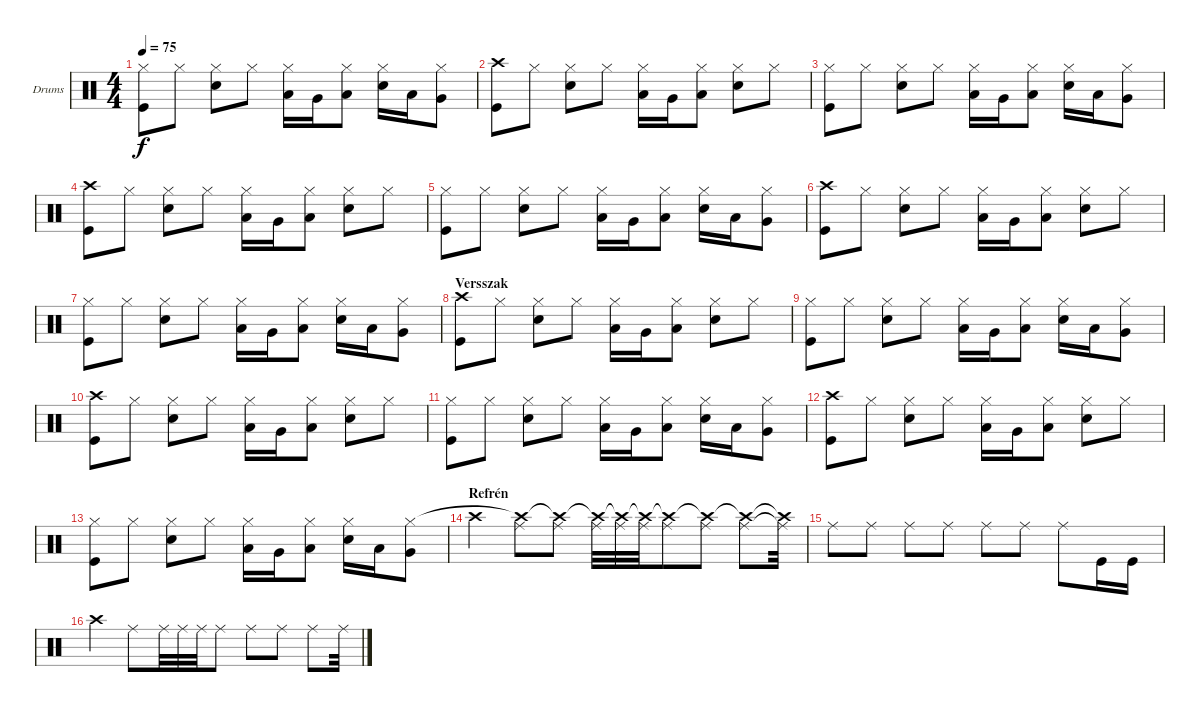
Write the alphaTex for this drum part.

\defaultSystemsLayout 4
\bracketExtendMode groupsimilarinstruments
\firstSystemTrackNameOrientation horizontal
\otherSystemsTrackNameOrientation horizontal
\track ("Craig Nunenmacher" "Drums") {instrument percussion}
\staff {score}
\articulation defaults
\ts (4 4)
\tempo 75
\clef neutral
\ks c
("Kick (hit)" "Hi-Hat (closed)").8{dy f} "Hi-Hat (closed)".8 ("Snare (hit) 2" "Hi-Hat (closed)").8 "Hi-Hat (closed)".8 ("Low Tom (hit)" "Hi-Hat (closed)").16 "Very Low Tom (hit)".16 ("Low Tom (hit)" "Hi-Hat (closed)").8 ("Snare (hit) 2" "Hi-Hat (closed)").16 "Low Tom (hit)".16 ("Very Low Tom (hit)" "Hi-Hat (closed)").8 |
("Kick (hit)" "Crash high (hit)").8 "Hi-Hat (closed)".8 ("Snare (hit) 2" "Hi-Hat (closed)").8 "Hi-Hat (closed)".8 ("Low Tom (hit)" "Hi-Hat (closed)").16 "Very Low Tom (hit)".16 ("Low Tom (hit)" "Hi-Hat (closed)").8 ("Snare (hit) 2" "Hi-Hat (closed)").8 "Hi-Hat (closed)".8 |
("Kick (hit)" "Hi-Hat (closed)").8 "Hi-Hat (closed)".8 ("Snare (hit) 2" "Hi-Hat (closed)").8 "Hi-Hat (closed)".8 ("Low Tom (hit)" "Hi-Hat (closed)").16 "Very Low Tom (hit)".16 ("Low Tom (hit)" "Hi-Hat (closed)").8 ("Snare (hit) 2" "Hi-Hat (closed)").16 "Low Tom (hit)".16 ("Very Low Tom (hit)" "Hi-Hat (closed)").8 |
("Kick (hit)" "Crash high (hit)").8 "Hi-Hat (closed)".8 ("Snare (hit) 2" "Hi-Hat (closed)").8 "Hi-Hat (closed)".8 ("Low Tom (hit)" "Hi-Hat (closed)").16 "Very Low Tom (hit)".16 ("Low Tom (hit)" "Hi-Hat (closed)").8 ("Snare (hit) 2" "Hi-Hat (closed)").8 "Hi-Hat (closed)".8 |
("Kick (hit)" "Hi-Hat (closed)").8 "Hi-Hat (closed)".8 ("Snare (hit) 2" "Hi-Hat (closed)").8 "Hi-Hat (closed)".8 ("Low Tom (hit)" "Hi-Hat (closed)").16 "Very Low Tom (hit)".16 ("Low Tom (hit)" "Hi-Hat (closed)").8 ("Snare (hit) 2" "Hi-Hat (closed)").16 "Low Tom (hit)".16 ("Very Low Tom (hit)" "Hi-Hat (closed)").8 |
("Kick (hit)" "Crash high (hit)").8 "Hi-Hat (closed)".8 ("Snare (hit) 2" "Hi-Hat (closed)").8 "Hi-Hat (closed)".8 ("Low Tom (hit)" "Hi-Hat (closed)").16 "Very Low Tom (hit)".16 ("Low Tom (hit)" "Hi-Hat (closed)").8 ("Snare (hit) 2" "Hi-Hat (closed)").8 "Hi-Hat (closed)".8 |
("Kick (hit)" "Hi-Hat (closed)").8 "Hi-Hat (closed)".8 ("Snare (hit) 2" "Hi-Hat (closed)").8 "Hi-Hat (closed)".8 ("Low Tom (hit)" "Hi-Hat (closed)").16 "Very Low Tom (hit)".16 ("Low Tom (hit)" "Hi-Hat (closed)").8 ("Snare (hit) 2" "Hi-Hat (closed)").16 "Low Tom (hit)".16 ("Very Low Tom (hit)" "Hi-Hat (closed)").8 |
\section ("" "Versszak")
("Kick (hit)" "Crash high (hit)").8 "Hi-Hat (closed)".8 ("Snare (hit) 2" "Hi-Hat (closed)").8 "Hi-Hat (closed)".8 ("Low Tom (hit)" "Hi-Hat (closed)").16 "Very Low Tom (hit)".16 ("Low Tom (hit)" "Hi-Hat (closed)").8 ("Snare (hit) 2" "Hi-Hat (closed)").8 "Hi-Hat (closed)".8 |
("Kick (hit)" "Hi-Hat (closed)").8 "Hi-Hat (closed)".8 ("Snare (hit) 2" "Hi-Hat (closed)").8 "Hi-Hat (closed)".8 ("Low Tom (hit)" "Hi-Hat (closed)").16 "Very Low Tom (hit)".16 ("Low Tom (hit)" "Hi-Hat (closed)").8 ("Snare (hit) 2" "Hi-Hat (closed)").16 "Low Tom (hit)".16 ("Very Low Tom (hit)" "Hi-Hat (closed)").8 |
("Kick (hit)" "Crash high (hit)").8 "Hi-Hat (closed)".8 ("Snare (hit) 2" "Hi-Hat (closed)").8 "Hi-Hat (closed)".8 ("Low Tom (hit)" "Hi-Hat (closed)").16 "Very Low Tom (hit)".16 ("Low Tom (hit)" "Hi-Hat (closed)").8 ("Snare (hit) 2" "Hi-Hat (closed)").8 "Hi-Hat (closed)".8 |
("Kick (hit)" "Hi-Hat (closed)").8 "Hi-Hat (closed)".8 ("Snare (hit) 2" "Hi-Hat (closed)").8 "Hi-Hat (closed)".8 ("Low Tom (hit)" "Hi-Hat (closed)").16 "Very Low Tom (hit)".16 ("Low Tom (hit)" "Hi-Hat (closed)").8 ("Snare (hit) 2" "Hi-Hat (closed)").16 "Low Tom (hit)".16 ("Very Low Tom (hit)" "Hi-Hat (closed)").8 |
("Kick (hit)" "Crash high (hit)").8 "Hi-Hat (closed)".8 ("Snare (hit) 2" "Hi-Hat (closed)").8 "Hi-Hat (closed)".8 ("Low Tom (hit)" "Hi-Hat (closed)").16 "Very Low Tom (hit)".16 ("Low Tom (hit)" "Hi-Hat (closed)").8 ("Snare (hit) 2" "Hi-Hat (closed)").8 "Hi-Hat (closed)".8 |
("Kick (hit)" "Hi-Hat (closed)").8 "Hi-Hat (closed)".8 ("Snare (hit) 2" "Hi-Hat (closed)").8 "Hi-Hat (closed)".8 ("Low Tom (hit)" "Hi-Hat (closed)").16 "Very Low Tom (hit)".16 ("Low Tom (hit)" "Hi-Hat (closed)").8 ("Snare (hit) 2" "Hi-Hat (closed)").16 "Low Tom (hit)".16 ("Very Low Tom (hit)" "Hi-Hat (closed)").8 |
\section ("" "Refrén")
"Crash high (hit)".4 ("Ride (middle)" "Crash high (hit)"{t}).8 ("Ride (middle)" "Crash high (hit)"{t}).8 ("Ride (middle)" "Crash high (hit)"{t}).32 ("Ride (middle)" "Crash high (hit)"{t}).32 ("Ride (middle)" "Crash high (hit)"{t}).32 ("Ride (middle)" "Crash high (hit)"{t}).8 ("Ride (middle)" "Crash high (hit)"{t}).8 ("Ride (middle)" "Crash high (hit)"{t}).8 ("Ride (middle)"{t} "Crash high (hit)"{t}).32 |
"Ride (middle)".8 "Ride (middle)".8 "Ride (middle)".8 "Ride (middle)".8 "Ride (middle)".8 "Ride (middle)".8 "Ride (middle)".8 "Kick (hit)".16 "Kick (hit)".16 |
"Crash high (hit)".4 "Ride (middle)".8 "Ride (middle)".32 "Ride (middle)".32 "Ride (middle)".32 "Ride (middle)".8 "Ride (middle)".8 "Ride (middle)".8 "Ride (middle)".8 "Ride (middle)".32
